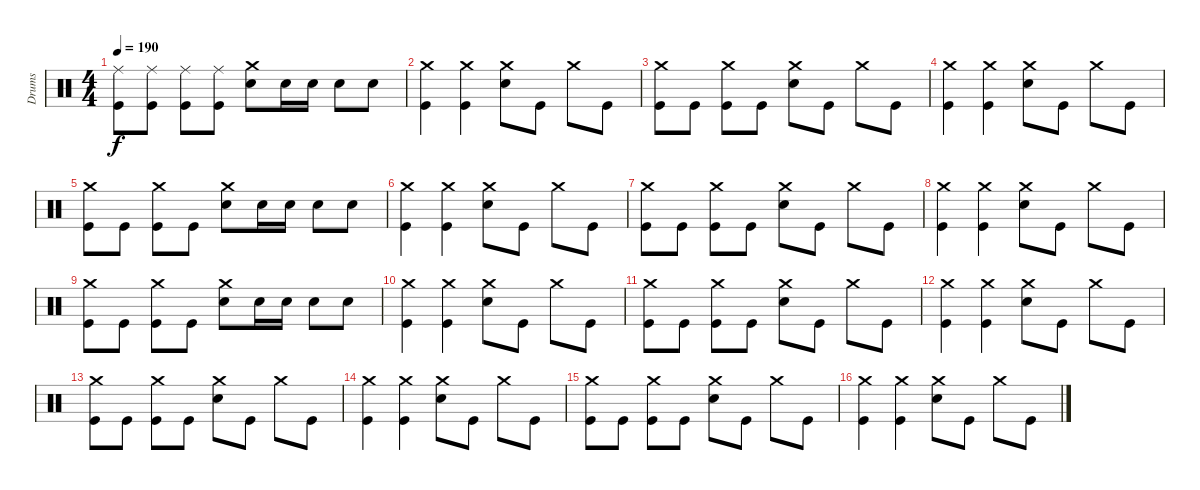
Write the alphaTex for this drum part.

\track ("Drums" "Drums") {instrument percussion}
\staff {score}
\articulation defaults
\ts (4 4)
\tempo 190
\clef neutral
\ks c
("Ride (middle)" "Kick (hit)").8{dy f} ("Ride (middle)" "Kick (hit)").8 ("Ride (middle)" "Kick (hit)").8 ("Ride (middle)" "Kick (hit)").8 ("Crash medium (hit)" "Electric Snare (hit)").8 "Electric Snare (hit)".16 "Electric Snare (hit)".16 "Electric Snare (hit)".8 "Electric Snare (hit)".8 |
("Crash medium (hit)" "Kick (hit)").4 ("Crash medium (hit)" "Kick (hit)").4 ("Crash medium (hit)" "Electric Snare (hit)").8 "Kick (hit)".8 "Crash medium (hit)".8 "Kick (hit)".8 |
("Crash medium (hit)" "Kick (hit)").8 "Kick (hit)".8 ("Crash medium (hit)" "Kick (hit)").8 "Kick (hit)".8 ("Crash medium (hit)" "Electric Snare (hit)").8 "Kick (hit)".8 "Crash medium (hit)".8 "Kick (hit)".8 |
("Crash medium (hit)" "Kick (hit)").4 ("Crash medium (hit)" "Kick (hit)").4 ("Crash medium (hit)" "Electric Snare (hit)").8 "Kick (hit)".8 "Crash medium (hit)".8 "Kick (hit)".8 |
("Crash medium (hit)" "Kick (hit)").8 "Kick (hit)".8 ("Crash medium (hit)" "Kick (hit)").8 "Kick (hit)".8 ("Crash medium (hit)" "Electric Snare (hit)").8 "Electric Snare (hit)".16 "Electric Snare (hit)".16 "Electric Snare (hit)".8 "Electric Snare (hit)".8 |
("Crash medium (hit)" "Kick (hit)").4 ("Crash medium (hit)" "Kick (hit)").4 ("Crash medium (hit)" "Electric Snare (hit)").8 "Kick (hit)".8 "Crash medium (hit)".8 "Kick (hit)".8 |
("Crash medium (hit)" "Kick (hit)").8 "Kick (hit)".8 ("Crash medium (hit)" "Kick (hit)").8 "Kick (hit)".8 ("Crash medium (hit)" "Electric Snare (hit)").8 "Kick (hit)".8 "Crash medium (hit)".8 "Kick (hit)".8 |
("Crash medium (hit)" "Kick (hit)").4 ("Crash medium (hit)" "Kick (hit)").4 ("Crash medium (hit)" "Electric Snare (hit)").8 "Kick (hit)".8 "Crash medium (hit)".8 "Kick (hit)".8 |
("Crash medium (hit)" "Kick (hit)").8 "Kick (hit)".8 ("Crash medium (hit)" "Kick (hit)").8 "Kick (hit)".8 ("Crash medium (hit)" "Electric Snare (hit)").8 "Electric Snare (hit)".16 "Electric Snare (hit)".16 "Electric Snare (hit)".8 "Electric Snare (hit)".8 |
("Crash medium (hit)" "Kick (hit)").4 ("Crash medium (hit)" "Kick (hit)").4 ("Crash medium (hit)" "Electric Snare (hit)").8 "Kick (hit)".8 "Crash medium (hit)".8 "Kick (hit)".8 |
("Crash medium (hit)" "Kick (hit)").8 "Kick (hit)".8 ("Crash medium (hit)" "Kick (hit)").8 "Kick (hit)".8 ("Crash medium (hit)" "Electric Snare (hit)").8 "Kick (hit)".8 "Crash medium (hit)".8 "Kick (hit)".8 |
("Crash medium (hit)" "Kick (hit)").4 ("Crash medium (hit)" "Kick (hit)").4 ("Crash medium (hit)" "Electric Snare (hit)").8 "Kick (hit)".8 "Crash medium (hit)".8 "Kick (hit)".8 |
("Crash medium (hit)" "Kick (hit)").8 "Kick (hit)".8 ("Crash medium (hit)" "Kick (hit)").8 "Kick (hit)".8 ("Crash medium (hit)" "Electric Snare (hit)").8 "Kick (hit)".8 "Crash medium (hit)".8 "Kick (hit)".8 |
("Crash medium (hit)" "Kick (hit)").4 ("Crash medium (hit)" "Kick (hit)").4 ("Crash medium (hit)" "Electric Snare (hit)").8 "Kick (hit)".8 "Crash medium (hit)".8 "Kick (hit)".8 |
("Crash medium (hit)" "Kick (hit)").8 "Kick (hit)".8 ("Crash medium (hit)" "Kick (hit)").8 "Kick (hit)".8 ("Crash medium (hit)" "Electric Snare (hit)").8 "Kick (hit)".8 "Crash medium (hit)".8 "Kick (hit)".8 |
("Crash medium (hit)" "Kick (hit)").4 ("Crash medium (hit)" "Kick (hit)").4 ("Crash medium (hit)" "Electric Snare (hit)").8 "Kick (hit)".8 "Crash medium (hit)".8 "Kick (hit)".8
